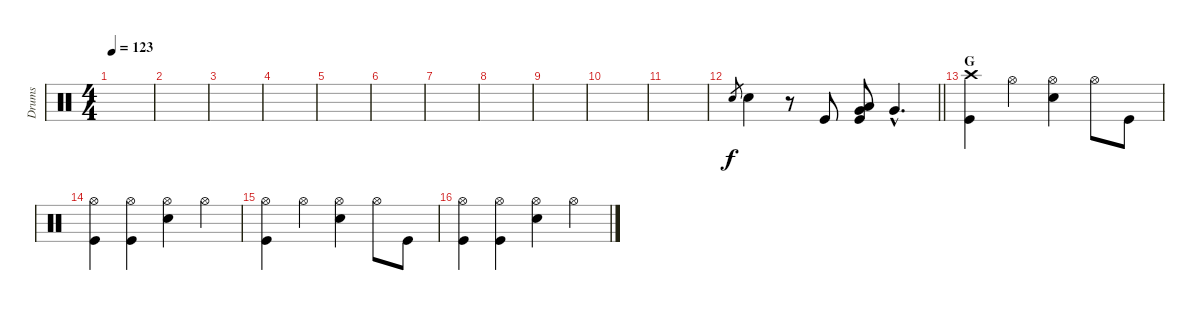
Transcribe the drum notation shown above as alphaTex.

\track ("Drums" "Drums") {instrument percussion}
\staff {score}
\articulation defaults
\ts (4 4)
\tempo 123
\clef neutral
\ks c
|
|
|
|
|
|
|
|
|
|
|
\barLineRight lightlight "Electric Snare (hit)".8{gr} "Electric Snare (hit)".4
r.8 "Kick (hit)".8 ("Low Tom (hit)" "Very Low Tom (hit)" "Kick (hit)").8 "Very Low Tom (hit)"{hac}.4{d} |
\section ("" "G")
("Crash high (hit)" "Kick (hit)").4 "Hi-Hat (open)".4 ("Hi-Hat (open)" "Electric Snare (hit)").4 "Hi-Hat (open)".8 "Kick (hit)".8 |
("Hi-Hat (open)" "Kick (hit)").4 ("Hi-Hat (open)" "Kick (hit)").4 ("Hi-Hat (open)" "Electric Snare (hit)").4 "Hi-Hat (open)".4 |
("Hi-Hat (open)" "Kick (hit)").4 "Hi-Hat (open)".4 ("Hi-Hat (open)" "Electric Snare (hit)").4 "Hi-Hat (open)".8 "Kick (hit)".8 |
("Hi-Hat (open)" "Kick (hit)").4 ("Hi-Hat (open)" "Kick (hit)").4 ("Hi-Hat (open)" "Electric Snare (hit)").4 "Hi-Hat (open)".4
